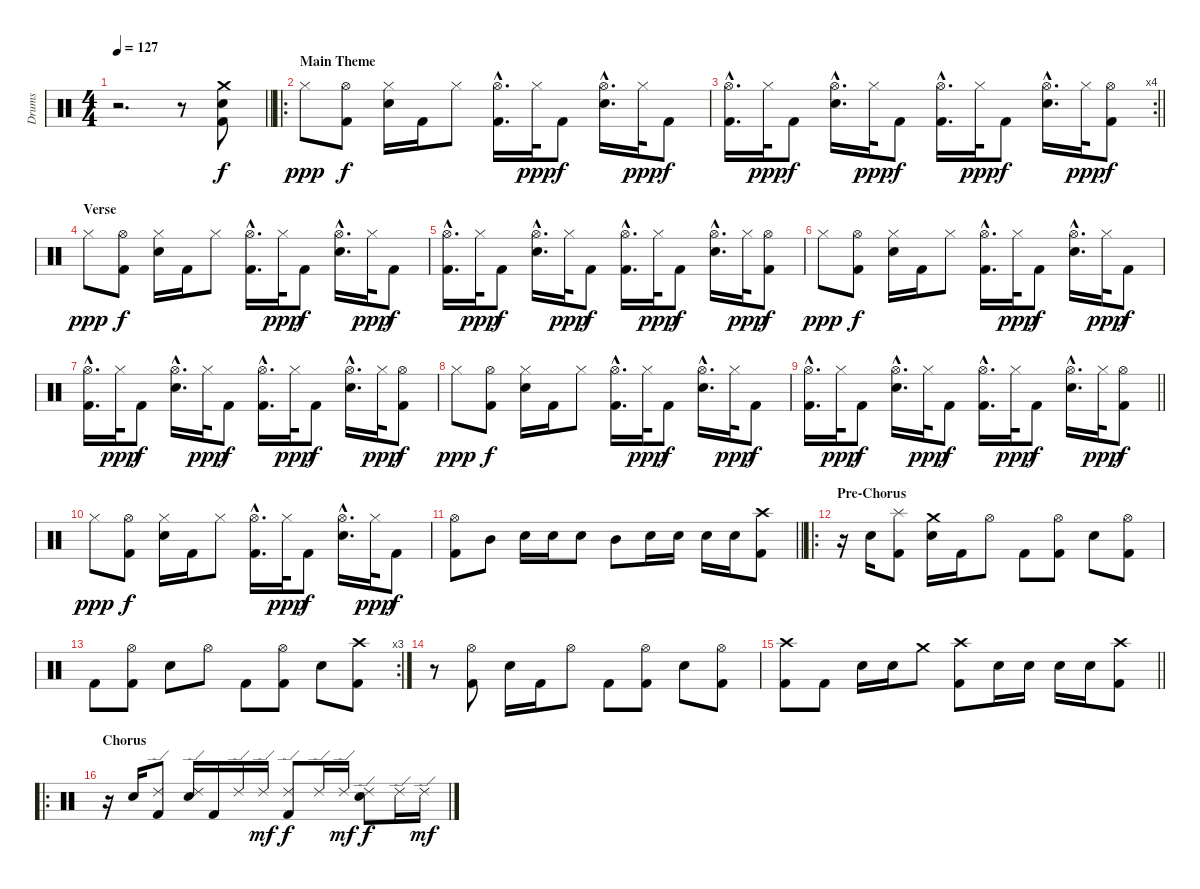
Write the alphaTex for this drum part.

\track ("Drums" "Drums") {instrument percussion}
\staff {score}
\articulation defaults
\ts (4 4)
\tempo 127
\clef neutral
\barLineRight lightlight
\ks c
r.2{d dy f} r.8 ("Crash medium (hit)" "Electric Snare (hit)" "Kick (hit) 2").8 |
\ro
\section ("" "Main Theme")
"Hi-Hat (closed)".8{dy ppp} ("Hi-Hat (open)" "Kick (hit) 2").8{dy f} ("Hi-Hat (closed)" "Electric Snare (hit)").16 "Kick (hit) 2".16 "Hi-Hat (closed)".8 ("Hi-Hat (open)"{hac} "Kick (hit) 2"{hac}).16{d} "Hi-Hat (closed)".32{dy ppp} "Kick (hit) 2".8{dy f} ("Hi-Hat (open)"{hac} "Electric Snare (hit)"{hac}).16{d} "Hi-Hat (closed)".32{dy ppp} "Kick (hit) 2".8{dy f} |
\rc 4
\barLineRight lightlight
("Hi-Hat (open)"{hac} "Kick (hit) 2"{hac}).16{d} "Hi-Hat (closed)".32{dy ppp} "Kick (hit) 2".8{dy f} ("Hi-Hat (open)"{hac} "Electric Snare (hit)"{hac}).16{d} "Hi-Hat (closed)".32{dy ppp} "Kick (hit) 2".8{dy f} ("Hi-Hat (open)"{hac} "Kick (hit) 2"{hac}).16{d} "Hi-Hat (closed)".32{dy ppp} "Kick (hit) 2".8{dy f} ("Hi-Hat (open)"{hac} "Electric Snare (hit)"{hac}).16{d} "Hi-Hat (closed)".32{dy ppp} ("Hi-Hat (open)" "Kick (hit) 2").8{dy f} |
\section ("" "Verse")
"Hi-Hat (closed)".8{dy ppp} ("Hi-Hat (open)" "Kick (hit) 2").8{dy f} ("Hi-Hat (closed)" "Electric Snare (hit)").16 "Kick (hit) 2".16 "Hi-Hat (closed)".8 ("Hi-Hat (open)"{hac} "Kick (hit) 2"{hac}).16{d} "Hi-Hat (closed)".32{dy ppp} "Kick (hit) 2".8{dy f} ("Hi-Hat (open)"{hac} "Electric Snare (hit)"{hac}).16{d} "Hi-Hat (closed)".32{dy ppp} "Kick (hit) 2".8{dy f} |
("Hi-Hat (open)"{hac} "Kick (hit) 2"{hac}).16{d} "Hi-Hat (closed)".32{dy ppp} "Kick (hit) 2".8{dy f} ("Hi-Hat (open)"{hac} "Electric Snare (hit)"{hac}).16{d} "Hi-Hat (closed)".32{dy ppp} "Kick (hit) 2".8{dy f} ("Hi-Hat (open)"{hac} "Kick (hit) 2"{hac}).16{d} "Hi-Hat (closed)".32{dy ppp} "Kick (hit) 2".8{dy f} ("Hi-Hat (open)"{hac} "Electric Snare (hit)"{hac}).16{d} "Hi-Hat (closed)".32{dy ppp} ("Hi-Hat (open)" "Kick (hit) 2").8{dy f} |
"Hi-Hat (closed)".8{dy ppp} ("Hi-Hat (open)" "Kick (hit) 2").8{dy f} ("Hi-Hat (closed)" "Electric Snare (hit)").16 "Kick (hit) 2".16 "Hi-Hat (closed)".8 ("Hi-Hat (open)"{hac} "Kick (hit) 2"{hac}).16{d} "Hi-Hat (closed)".32{dy ppp} "Kick (hit) 2".8{dy f} ("Hi-Hat (open)"{hac} "Electric Snare (hit)"{hac}).16{d} "Hi-Hat (closed)".32{dy ppp} "Kick (hit) 2".8{dy f} |
("Hi-Hat (open)"{hac} "Kick (hit) 2"{hac}).16{d} "Hi-Hat (closed)".32{dy ppp} "Kick (hit) 2".8{dy f} ("Hi-Hat (open)"{hac} "Electric Snare (hit)"{hac}).16{d} "Hi-Hat (closed)".32{dy ppp} "Kick (hit) 2".8{dy f} ("Hi-Hat (open)"{hac} "Kick (hit) 2"{hac}).16{d} "Hi-Hat (closed)".32{dy ppp} "Kick (hit) 2".8{dy f} ("Hi-Hat (open)"{hac} "Electric Snare (hit)"{hac}).16{d} "Hi-Hat (closed)".32{dy ppp} ("Hi-Hat (open)" "Kick (hit) 2").8{dy f} |
"Hi-Hat (closed)".8{dy ppp} ("Hi-Hat (open)" "Kick (hit) 2").8{dy f} ("Hi-Hat (closed)" "Electric Snare (hit)").16 "Kick (hit) 2".16 "Hi-Hat (closed)".8 ("Hi-Hat (open)"{hac} "Kick (hit) 2"{hac}).16{d} "Hi-Hat (closed)".32{dy ppp} "Kick (hit) 2".8{dy f} ("Hi-Hat (open)"{hac} "Electric Snare (hit)"{hac}).16{d} "Hi-Hat (closed)".32{dy ppp} "Kick (hit) 2".8{dy f} |
\barLineRight lightlight
("Hi-Hat (open)"{hac} "Kick (hit) 2"{hac}).16{d} "Hi-Hat (closed)".32{dy ppp} "Kick (hit) 2".8{dy f} ("Hi-Hat (open)"{hac} "Electric Snare (hit)"{hac}).16{d} "Hi-Hat (closed)".32{dy ppp} "Kick (hit) 2".8{dy f} ("Hi-Hat (open)"{hac} "Kick (hit) 2"{hac}).16{d} "Hi-Hat (closed)".32{dy ppp} "Kick (hit) 2".8{dy f} ("Hi-Hat (open)"{hac} "Electric Snare (hit)"{hac}).16{d} "Hi-Hat (closed)".32{dy ppp} ("Hi-Hat (open)" "Kick (hit) 2").8{dy f} |
"Hi-Hat (closed)".8{dy ppp} ("Hi-Hat (open)" "Kick (hit) 2").8{dy f} ("Hi-Hat (closed)" "Electric Snare (hit)").16 "Kick (hit) 2".16 "Hi-Hat (closed)".8 ("Hi-Hat (open)"{hac} "Kick (hit) 2"{hac}).16{d} "Hi-Hat (closed)".32{dy ppp} "Kick (hit) 2".8{dy f} ("Hi-Hat (open)"{hac} "Electric Snare (hit)"{hac}).16{d} "Hi-Hat (closed)".32{dy ppp} "Kick (hit) 2".8{dy f} |
\barLineRight lightlight
("Hi-Hat (open)" "Kick (hit) 2").8 "Mid Tom (hit)".8 "Electric Snare (hit)".16 "Electric Snare (hit)".16 "Electric Snare (hit)".8 "Mid Tom (hit)".8 "Electric Snare (hit)".16 "Electric Snare (hit)".16 "Electric Snare (hit)".16 "Electric Snare (hit)".16 ("Crash high (hit)" "Kick (hit) 2").8 |
\ro
\section ("" "Pre-Chorus")
r.16 "Electric Snare (hit)".16 ("Splash (hit)" "Kick (hit) 2").8 ("Crash medium (hit)" "Electric Snare (hit)").16 "Kick (hit) 2".16 "Hi-Hat (open)".8 "Kick (hit) 2".8 ("Hi-Hat (open)" "Kick (hit) 2").8 "Electric Snare (hit)".8 ("Hi-Hat (open)" "Kick (hit) 2").8 |
\rc 3 "Kick (hit) 2".8
("Hi-Hat (open)" "Kick (hit) 2").8 "Electric Snare (hit)".8 "Hi-Hat (open)".8 "Kick (hit) 2".8 ("Hi-Hat (open)" "Kick (hit) 2").8 "Electric Snare (hit)".8 ("Crash high (hit)" "Kick (hit) 2").8 |
r.8 ("Hi-Hat (open)" "Kick (hit) 2").8 "Electric Snare (hit)".16 "Kick (hit) 2".16 "Hi-Hat (open)".8 "Kick (hit) 2".8 ("Hi-Hat (open)" "Kick (hit) 2").8 "Electric Snare (hit)".8 ("Hi-Hat (open)" "Kick (hit) 2").8 |
\barLineRight lightlight
("Crash high (hit)" "Kick (hit) 2").8 "Kick (hit) 2".8 "Electric Snare (hit)".16 "Electric Snare (hit)".16 "Crash medium (hit)".8 ("Crash high (hit)" "Kick (hit) 2").8 "Electric Snare (hit)".16 "Electric Snare (hit)".16 "Electric Snare (hit)".16 "Electric Snare (hit)".16 ("Crash high (hit)" "Kick (hit) 2").8 |
\ro
\section ("" "Chorus")
r.16 "Electric Snare (hit)".16 ("Ride (edge) 2" "Kick (hit) 2").8 ("Ride (edge) 2" "Electric Snare (hit)").16 "Kick (hit) 2".16 "Ride (edge) 2".16 "Ride (edge) 2".16{dy mf} ("Ride (edge) 2" "Kick (hit) 2").8{dy f} "Ride (edge) 2".16 "Ride (edge) 2".16{dy mf} ("Ride (edge) 2" "Electric Snare (hit)").8{dy f} "Ride (edge) 2".16 "Ride (edge) 2".16{dy mf}
